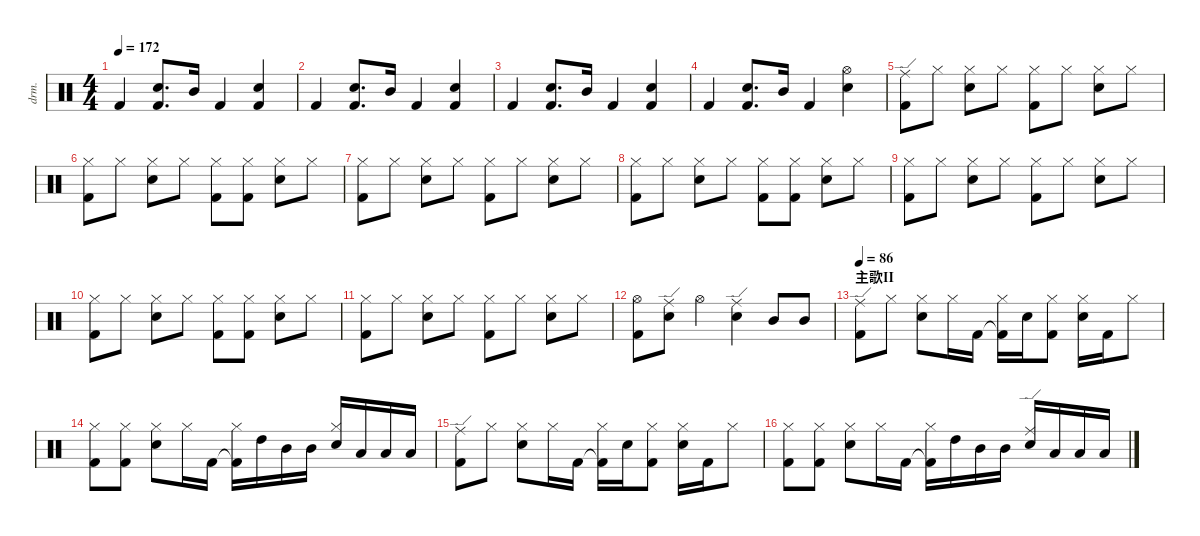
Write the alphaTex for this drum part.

\defaultSystemsLayout 4
\hideDynamics
\bracketExtendMode nobrackets
\track ("Drums" "drm.") {solo instrument percussion}
\staff {score}
\articulation defaults
\ts (4 4)
\tempo 172
\clef neutral
\ks c "Kick (hit) 2".4{dy mf beam Up}
("Snare (hit) 2" "Kick (hit) 2").8{d beam Up} "Mid Tom (hit)".16{dy ff beam Up} "Kick (hit) 2".4{dy mf beam Up} ("Snare (hit) 2" "Kick (hit) 2").4{beam Up} |
"Kick (hit) 2".4{beam Up} ("Snare (hit) 2" "Kick (hit) 2").8{d beam Up} "Mid Tom (hit)".16{dy ff beam Up} "Kick (hit) 2".4{dy mf beam Up} ("Snare (hit) 2" "Kick (hit) 2").4{beam Up} |
"Kick (hit) 2".4{beam Up} ("Snare (hit) 2" "Kick (hit) 2").8{d beam Up} "Mid Tom (hit)".16{dy ff beam Up} "Kick (hit) 2".4{dy mf beam Up} ("Snare (hit) 2" "Kick (hit) 2").4{beam Up} |
"Kick (hit) 2".4{beam Up} ("Snare (hit) 2" "Kick (hit) 2").8{d beam Up} "Mid Tom (hit)".16{dy ff beam Up} "Kick (hit) 2".4{dy mf beam Up} ("Hi-Hat (open)" "Snare (hit) 2").4{dy ff beam Down} |
("Kick (hit) 2" "Ride (edge)").8{beam Down} "Hi-Hat (closed)".8{dy mf beam Down} ("Snare (hit) 2" "Hi-Hat (closed)").8{beam Down} "Hi-Hat (closed)".8{beam Down} ("Kick (hit) 2" "Hi-Hat (closed)").8{beam Down} "Hi-Hat (closed)".8{beam Down} ("Snare (hit) 2" "Hi-Hat (closed)").8{beam Down} "Hi-Hat (closed)".8{beam Down} |
("Kick (hit) 2" "Hi-Hat (closed)").8{dy ff beam Down} "Hi-Hat (closed)".8{dy mf beam Down} ("Snare (hit) 2" "Hi-Hat (closed)").8{beam Down} "Hi-Hat (closed)".8{beam Down} ("Kick (hit) 2" "Hi-Hat (closed)").8{beam Down} ("Kick (hit) 2" "Hi-Hat (closed)").8{beam Down} ("Snare (hit) 2" "Hi-Hat (closed)").8{beam Down} "Hi-Hat (closed)".8{beam Down} |
("Kick (hit) 2" "Hi-Hat (closed)").8{dy ff beam Down} "Hi-Hat (closed)".8{dy mf beam Down} ("Snare (hit) 2" "Hi-Hat (closed)").8{beam Down} "Hi-Hat (closed)".8{beam Down} ("Kick (hit) 2" "Hi-Hat (closed)").8{beam Down} "Hi-Hat (closed)".8{beam Down} ("Snare (hit) 2" "Hi-Hat (closed)").8{beam Down} "Hi-Hat (closed)".8{beam Down} |
("Kick (hit) 2" "Hi-Hat (closed)").8{dy ff beam Down} "Hi-Hat (closed)".8{dy mf beam Down} ("Snare (hit) 2" "Hi-Hat (closed)").8{beam Down} "Hi-Hat (closed)".8{beam Down} ("Kick (hit) 2" "Hi-Hat (closed)").8{beam Down} ("Kick (hit) 2" "Hi-Hat (closed)").8{beam Down} ("Snare (hit) 2" "Hi-Hat (closed)").8{beam Down} "Hi-Hat (closed)".8{beam Down} |
("Kick (hit) 2" "Hi-Hat (closed)").8{dy ff beam Down} "Hi-Hat (closed)".8{dy mf beam Down} ("Snare (hit) 2" "Hi-Hat (closed)").8{beam Down} "Hi-Hat (closed)".8{beam Down} ("Kick (hit) 2" "Hi-Hat (closed)").8{beam Down} "Hi-Hat (closed)".8{beam Down} ("Snare (hit) 2" "Hi-Hat (closed)").8{beam Down} "Hi-Hat (closed)".8{beam Down} |
("Kick (hit) 2" "Hi-Hat (closed)").8{dy ff beam Down} "Hi-Hat (closed)".8{dy mf beam Down} ("Snare (hit) 2" "Hi-Hat (closed)").8{beam Down} "Hi-Hat (closed)".8{beam Down} ("Kick (hit) 2" "Hi-Hat (closed)").8{beam Down} ("Kick (hit) 2" "Hi-Hat (closed)").8{beam Down} ("Snare (hit) 2" "Hi-Hat (closed)").8{beam Down} "Hi-Hat (closed)".8{beam Down} |
("Kick (hit) 2" "Hi-Hat (closed)").8{dy ff beam Down} "Hi-Hat (closed)".8{dy mf beam Down} ("Snare (hit) 2" "Hi-Hat (closed)").8{beam Down} "Hi-Hat (closed)".8{beam Down} ("Kick (hit) 2" "Hi-Hat (closed)").8{beam Down} "Hi-Hat (closed)".8{beam Down} ("Snare (hit) 2" "Hi-Hat (closed)").8{beam Down} "Hi-Hat (closed)".8{beam Down} |
("Hi-Hat (open)" "Kick (hit) 2").8{beam Down} ("Snare (hit) 2" "Ride (edge)").8{dy ff beam Down} "Hi-Hat (open)".4{beam Down} ("Snare (hit) 2" "Ride (edge)").4{beam Down} "Mid Tom (hit)".8{beam Up} "Mid Tom (hit)".8{beam Up} |
\section ("" "主歌II")
\tempo 86
("Ride (edge)" "Kick (hit) 2").8{beam Down} "Hi-Hat (closed)".8{dy mf beam Down} ("Snare (hit) 2" "Hi-Hat (closed)").8{beam Down} "Hi-Hat (closed)".16{beam Down} "Kick (hit) 2".16{beam Down} ("Kick (hit) 2"{t} "Hi-Hat (closed)").16{beam Down} "Snare (hit) 2".16{beam Down} ("Kick (hit) 2" "Hi-Hat (closed)").8{beam Down} ("Hi-Hat (closed)" "Snare (hit) 2").16{beam Down} "Kick (hit) 2".16{beam Down} "Hi-Hat (closed)".8{beam Down} |
("Kick (hit) 2" "Hi-Hat (closed)").8{beam Down} ("Hi-Hat (closed)" "Kick (hit) 2").8{beam Down} ("Snare (hit) 2" "Hi-Hat (closed)").8{beam Down} "Hi-Hat (closed)".16{beam Down} "Kick (hit) 2".16{beam Down} ("Kick (hit) 2"{t} "Hi-Hat (closed)").16{beam Down} "High Tom (hit)".16{dy fff beam Down} "Mid Tom (hit)".16{dy mf beam Down} "Mid Tom (hit)".16{beam Down} ("Snare (hit) 2" "Hi-Hat (closed)").16{beam Up} "Low Tom (hit)".16{dy fff beam Up} "Low Tom (hit)".16{beam Up} "Low Tom (hit)".16{beam Up} |
("Ride (edge)" "Kick (hit) 2").8{beam Down} "Hi-Hat (closed)".8{dy mf beam Down} ("Snare (hit) 2" "Hi-Hat (closed)").8{beam Down} "Hi-Hat (closed)".16{beam Down} "Kick (hit) 2".16{beam Down} ("Kick (hit) 2"{t} "Hi-Hat (closed)").16{beam Down} "Snare (hit) 2".16{beam Down} ("Kick (hit) 2" "Hi-Hat (closed)").8{beam Down} ("Hi-Hat (closed)" "Snare (hit) 2").16{beam Down} "Kick (hit) 2".16{beam Down} "Hi-Hat (closed)".8{beam Down} |
("Kick (hit) 2" "Hi-Hat (closed)").8{beam Down} ("Hi-Hat (closed)" "Kick (hit) 2").8{beam Down} ("Snare (hit) 2" "Hi-Hat (closed)").8{beam Down} "Hi-Hat (closed)".16{beam Down} "Kick (hit) 2".16{beam Down} ("Kick (hit) 2"{t} "Hi-Hat (closed)").16{beam Down} "High Tom (hit)".16{dy fff beam Down} "Mid Tom (hit)".16{beam Down} "Mid Tom (hit)".16{beam Down} ("Snare (hit) 2" "Ride (edge)").16{dy ff beam Up} "Low Tom (hit)".16{dy fff beam Up} "Low Tom (hit)".16{beam Up} "Low Tom (hit)".16{beam Up}
